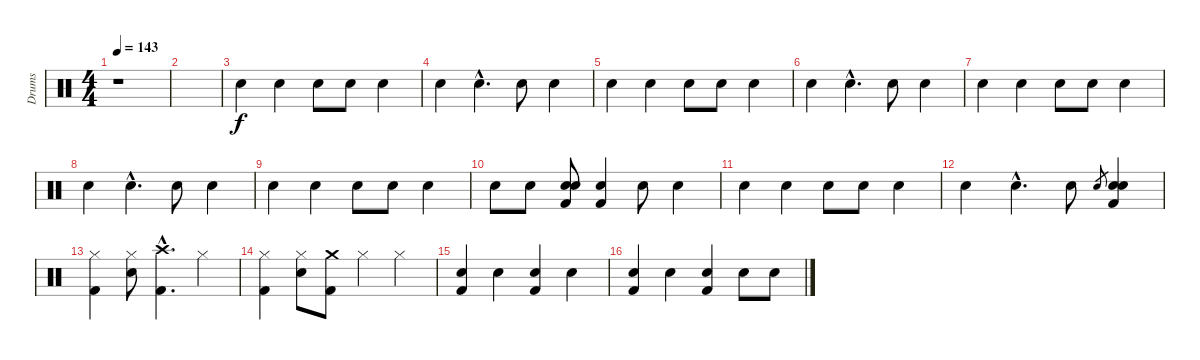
\track ("Drums" "Drums") {instrument percussion}
\staff {score}
\articulation defaults
\ts (4 4)
\tempo 143
\clef neutral
\ks c
r.1{dy f} |
|
"Hand Clap (hit)".4 "Hand Clap (hit)".4 "Hand Clap (hit)".8 "Hand Clap (hit)".8 "Hand Clap (hit)".4 |
"Hand Clap (hit)".4 "Hand Clap (hit)"{hac}.4{d} "Hand Clap (hit)".8 "Hand Clap (hit)".4 |
"Hand Clap (hit)".4 "Hand Clap (hit)".4 "Hand Clap (hit)".8 "Hand Clap (hit)".8 "Hand Clap (hit)".4 |
"Hand Clap (hit)".4 "Hand Clap (hit)"{hac}.4{d} "Hand Clap (hit)".8 "Hand Clap (hit)".4 |
"Hand Clap (hit)".4 "Hand Clap (hit)".4 "Hand Clap (hit)".8 "Hand Clap (hit)".8 "Hand Clap (hit)".4 |
"Hand Clap (hit)".4 "Hand Clap (hit)"{hac}.4{d} "Hand Clap (hit)".8 "Hand Clap (hit)".4 |
"Hand Clap (hit)".4 "Hand Clap (hit)".4 "Hand Clap (hit)".8 "Hand Clap (hit)".8 "Hand Clap (hit)".4 |
"Hand Clap (hit)".8 "Electric Snare (hit)".8 ("Hand Clap (hit)" "Electric Snare (hit)" "Kick (hit) 2").8 ("Hand Clap (hit)" "Kick (hit) 2").4 "Hand Clap (hit)".8 "Hand Clap (hit)".4 |
"Hand Clap (hit)".4 "Hand Clap (hit)".4 "Hand Clap (hit)".8 "Hand Clap (hit)".8 "Hand Clap (hit)".4 |
"Hand Clap (hit)".4 "Hand Clap (hit)"{hac}.4{d} "Hand Clap (hit)".8 "Electric Snare (hit)".8{gr} ("Hand Clap (hit)" "Electric Snare (hit)" "Kick (hit) 2").4 |
("Hi-Hat (closed)" "Kick (hit) 2").4 ("Hi-Hat (closed)" "Electric Snare (hit)").8 ("Crash high (hit)"{hac} "Kick (hit) 2"{hac}).4{d} "Hi-Hat (closed)".4 |
("Hi-Hat (closed)" "Kick (hit) 2").4 ("Hi-Hat (closed)" "Electric Snare (hit)").8 ("Crash medium (hit)" "Kick (hit) 2").8 "Hi-Hat (closed)".4 "Hi-Hat (closed)".4 |
("Electric Snare (hit)" "Kick (hit) 2").4 "Electric Snare (hit)".4 ("Electric Snare (hit)" "Kick (hit) 2").4 "Electric Snare (hit)".4 |
("Electric Snare (hit)" "Kick (hit) 2").4 "Electric Snare (hit)".4 ("Electric Snare (hit)" "Kick (hit) 2").4 "Electric Snare (hit)".8 "Electric Snare (hit)".8
